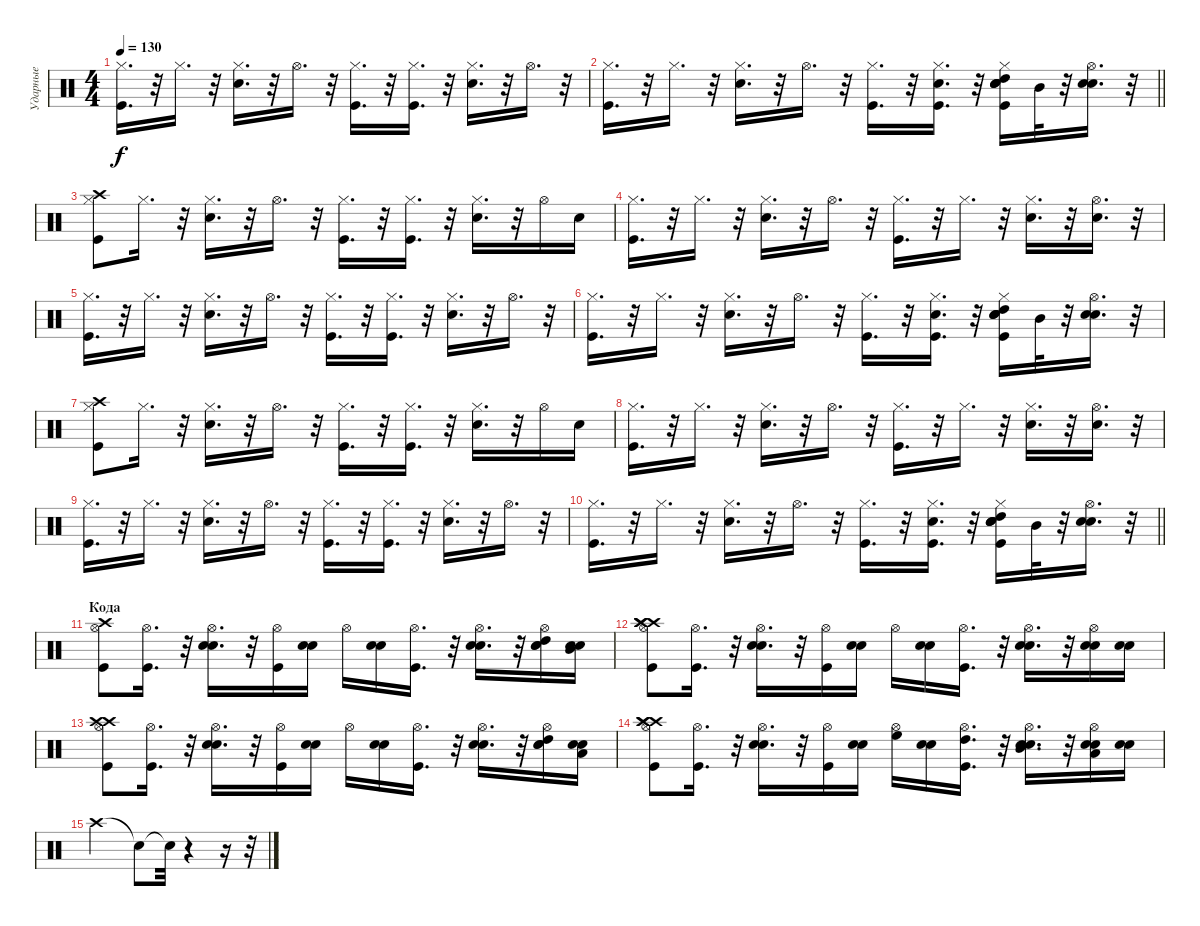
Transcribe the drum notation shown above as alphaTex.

\track ("Ударные" "Ударные") {instrument percussion}
\staff {score}
\articulation defaults
\ts (4 4)
\tempo 130
\clef neutral
\ks c
("Hi-Hat (closed)" "Kick (hit)").16{d dy f} r.32 "Hi-Hat (closed)".16{d} r.32 ("Hi-Hat (closed)" "Snare (hit) 2").16{d} r.32 "Hi-Hat (open)".16{d} r.32 ("Hi-Hat (closed)" "Kick (hit)").16{d} r.32 ("Hi-Hat (closed)" "Kick (hit)").16{d} r.32 ("Hi-Hat (closed)" "Snare (hit) 2").16{d} r.32 "Hi-Hat (open)".16{d} r.32 |
\barLineRight lightlight
("Hi-Hat (closed)" "Kick (hit)").16{d} r.32 "Hi-Hat (closed)".16{d} r.32 ("Hi-Hat (closed)" "Snare (hit) 2").16{d} r.32 "Hi-Hat (open)".16{d} r.32 ("Hi-Hat (closed)" "Kick (hit)").16{d} r.32 ("Hi-Hat (closed)" "Snare (hit) 2" "Kick (hit)").16{d} r.32 ("High Tom (hit)" "Hi-Hat (closed)" "Hand Clap (hit)" "Electric Snare (hit)" "Snare (hit) 2" "Kick (hit)").16 "Mid Tom (hit)".32 r.32 ("Hi-Hat (open)" "Hand Clap (hit)" "Snare (hit) 2").16{d} r.32 |
("Hi-Hat (closed)" "Crash high (hit)" "Kick (hit)").8 "Hi-Hat (closed)".16{d} r.32 ("Hi-Hat (closed)" "Snare (hit) 2").16{d} r.32 "Hi-Hat (open)".16{d} r.32 ("Hi-Hat (closed)" "Kick (hit)").16{d} r.32 ("Hi-Hat (closed)" "Kick (hit)").16{d} r.32 ("Hi-Hat (closed)" "Snare (hit) 2").16{d} r.32 "Hi-Hat (open)".16 "Snare (hit) 2".16 |
("Kick (hit)" "Hi-Hat (closed)").16{d} r.32 "Hi-Hat (closed)".16{d} r.32 ("Hi-Hat (closed)" "Snare (hit) 2").16{d} r.32 "Hi-Hat (open)".16{d} r.32 ("Hi-Hat (closed)" "Kick (hit)").16{d} r.32 "Hi-Hat (closed)".16{d} r.32 ("Hi-Hat (closed)" "Snare (hit) 2").16{d} r.32 ("Hi-Hat (open)" "Snare (hit) 2").16{d} r.32 |
("Hi-Hat (closed)" "Kick (hit)").16{d} r.32 "Hi-Hat (closed)".16{d} r.32 ("Hi-Hat (closed)" "Snare (hit) 2").16{d} r.32 "Hi-Hat (open)".16{d} r.32 ("Hi-Hat (closed)" "Kick (hit)").16{d} r.32 ("Hi-Hat (closed)" "Kick (hit)").16{d} r.32 ("Hi-Hat (closed)" "Snare (hit) 2").16{d} r.32 "Hi-Hat (open)".16{d} r.32 |
("Hi-Hat (closed)" "Kick (hit)").16{d} r.32 "Hi-Hat (closed)".16{d} r.32 ("Hi-Hat (closed)" "Snare (hit) 2").16{d} r.32 "Hi-Hat (open)".16{d} r.32 ("Hi-Hat (closed)" "Kick (hit)").16{d} r.32 ("Hi-Hat (closed)" "Snare (hit) 2" "Kick (hit)").16{d} r.32 ("High Tom (hit)" "Hi-Hat (closed)" "Hand Clap (hit)" "Electric Snare (hit)" "Snare (hit) 2" "Kick (hit)").16 "Mid Tom (hit)".32 r.32 ("Hi-Hat (open)" "Hand Clap (hit)" "Snare (hit) 2").16{d} r.32 |
("Hi-Hat (closed)" "Crash high (hit)" "Kick (hit)").8 "Hi-Hat (closed)".16{d} r.32 ("Hi-Hat (closed)" "Snare (hit) 2").16{d} r.32 "Hi-Hat (open)".16{d} r.32 ("Hi-Hat (closed)" "Kick (hit)").16{d} r.32 ("Hi-Hat (closed)" "Kick (hit)").16{d} r.32 ("Hi-Hat (closed)" "Snare (hit) 2").16{d} r.32 "Hi-Hat (open)".16 "Snare (hit) 2".16 |
("Kick (hit)" "Hi-Hat (closed)").16{d} r.32 "Hi-Hat (closed)".16{d} r.32 ("Hi-Hat (closed)" "Snare (hit) 2").16{d} r.32 "Hi-Hat (open)".16{d} r.32 ("Hi-Hat (closed)" "Kick (hit)").16{d} r.32 "Hi-Hat (closed)".16{d} r.32 ("Hi-Hat (closed)" "Snare (hit) 2").16{d} r.32 ("Hi-Hat (open)" "Snare (hit) 2").16{d} r.32 |
("Hi-Hat (closed)" "Kick (hit)").16{d} r.32 "Hi-Hat (closed)".16{d} r.32 ("Hi-Hat (closed)" "Snare (hit) 2").16{d} r.32 "Hi-Hat (open)".16{d} r.32 ("Hi-Hat (closed)" "Kick (hit)").16{d} r.32 ("Hi-Hat (closed)" "Kick (hit)").16{d} r.32 ("Hi-Hat (closed)" "Snare (hit) 2").16{d} r.32 "Hi-Hat (open)".16{d} r.32 |
\barLineRight lightlight
("Hi-Hat (closed)" "Kick (hit)").16{d} r.32 "Hi-Hat (closed)".16{d} r.32 ("Hi-Hat (closed)" "Snare (hit) 2").16{d} r.32 "Hi-Hat (open)".16{d} r.32 ("Hi-Hat (closed)" "Kick (hit)").16{d} r.32 ("Hi-Hat (closed)" "Snare (hit) 2" "Kick (hit)").16{d} r.32 ("High Tom (hit)" "Hi-Hat (closed)" "Hand Clap (hit)" "Electric Snare (hit)" "Snare (hit) 2" "Kick (hit)").16 "Mid Tom (hit)".32 r.32 ("Hi-Hat (open)" "Hand Clap (hit)" "Snare (hit) 2").16{d} r.32 |
\section ("" "Кода")
("Kick (hit)" "Hi-Hat (open)" "Crash high (hit)").8 ("Kick (hit)" "Hi-Hat (open)").16{d} r.32 ("Electric Snare (hit)" "Snare (hit) 2" "Hi-Hat (open)").16{d} r.32 ("Kick (hit)" "Hi-Hat (open)").16 ("Electric Snare (hit)" "Snare (hit) 2").16 "Hi-Hat (open)".16 ("Electric Snare (hit)" "Snare (hit) 2").16 ("Kick (hit)" "Hi-Hat (open)").16{d} r.32 ("Electric Snare (hit)" "Snare (hit) 2" "Hi-Hat (open)").16{d} r.32 ("Electric Snare (hit)" "High Tom (hit)" "Snare (hit) 2" "Hi-Hat (open)").16 ("Electric Snare (hit)" "Mid Tom (hit)" "Snare (hit) 2").16 |
("Crash high (hit)" "Crash high (hit)" "Crash high (hit)" "Kick (hit)" "Hi-Hat (open)").8 ("Kick (hit)" "Hi-Hat (open)").16{d} r.32 ("Electric Snare (hit)" "Snare (hit) 2" "Hi-Hat (open)").16{d} r.32 ("Kick (hit)" "Hi-Hat (open)").16 ("Electric Snare (hit)" "Snare (hit) 2").16 "Hi-Hat (open)".16 ("Electric Snare (hit)" "Snare (hit) 2").16 ("Kick (hit)" "Hi-Hat (open)").16{d} r.32 ("Electric Snare (hit)" "Snare (hit) 2" "Hi-Hat (open)").16{d} r.32 ("Electric Snare (hit)" "Snare (hit) 2" "Hi-Hat (open)").16 ("Electric Snare (hit)" "Snare (hit) 2").16 |
("Crash high (hit)" "Crash high (hit)" "Kick (hit)" "Hi-Hat (open)").8 ("Kick (hit)" "Hi-Hat (open)").16{d} r.32 ("Electric Snare (hit)" "Snare (hit) 2" "Hi-Hat (open)").16{d} r.32 ("Kick (hit)" "Hi-Hat (open)").16 ("Electric Snare (hit)" "Snare (hit) 2").16 "Hi-Hat (open)".16 ("Electric Snare (hit)" "Snare (hit) 2").16 ("Kick (hit)" "Hi-Hat (open)").16{d} r.32 ("Electric Snare (hit)" "Snare (hit) 2" "Hi-Hat (open)").16{d} r.32 ("Electric Snare (hit)" "High Tom (hit)" "Snare (hit) 2" "Hi-Hat (open)").16 ("Electric Snare (hit)" "Low Tom (hit)" "Snare (hit) 2").16 |
("Crash high (hit)" "Crash high (hit)" "Crash high (hit)" "Kick (hit)" "Hi-Hat (open)").8 ("Kick (hit)" "Hi-Hat (open)").16{d} r.32 ("Electric Snare (hit)" "Snare (hit) 2" "Hi-Hat (open)").16{d} r.32 ("Kick (hit)" "Hi-Hat (open)").16 ("Electric Snare (hit)" "Snare (hit) 2").16 ("High Floor Tom (hit)" "Hi-Hat (open)").16 ("Electric Snare (hit)" "Snare (hit) 2").16 ("High Tom (hit)" "Kick (hit)" "Hi-Hat (open)").16{d} r.32 ("Electric Snare (hit)" "Mid Tom (hit)" "Snare (hit) 2" "Hi-Hat (open)").16{d} r.32 ("Electric Snare (hit)" "Snare (hit) 2" "Low Tom (hit)" "Hi-Hat (open)").16 ("Electric Snare (hit)" "Snare (hit) 2").16 |
"Crash high (hit)".2 "Snare (hit)"{t}.8 "Snare (hit)"{t}.32 r.4 r.16 r.32
